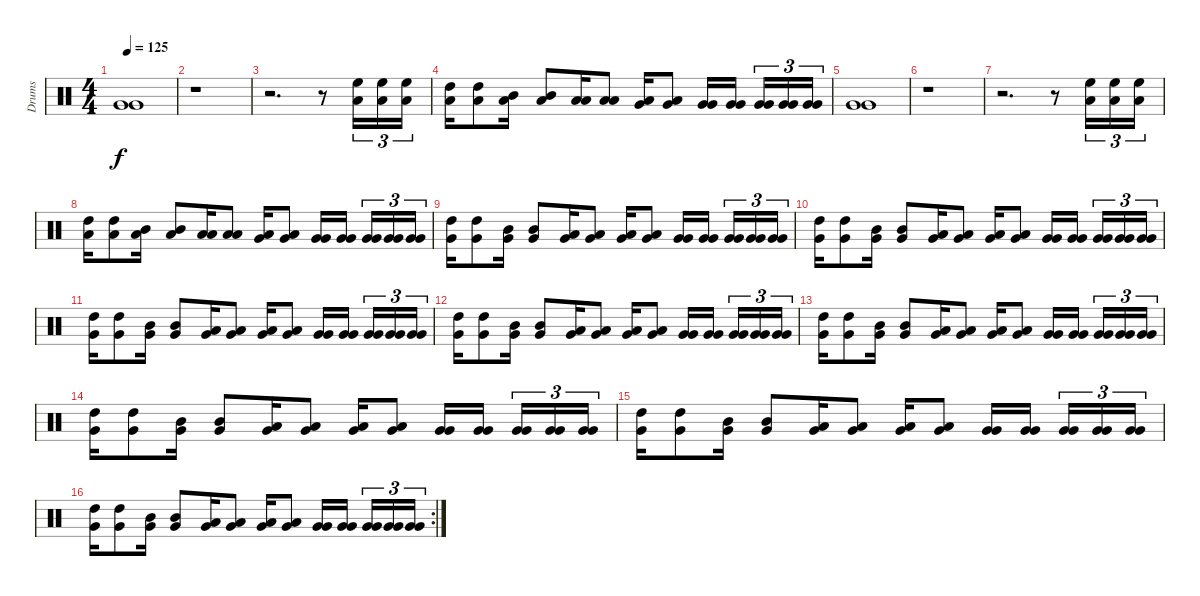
\track ("Drums" "Drums") {instrument percussion}
\staff {score}
\articulation defaults
\ts (4 4)
\tempo 125
\clef neutral
\ks c
("Very Low Tom (hit)" "Very Low Tom (hit)").1{dy f} |
r.1 |
r.2{d} r.8 ("High Floor Tom (hit)" "Low Tom (hit)").16{tu (3 2)} ("High Floor Tom (hit)" "Low Tom (hit)").16{tu (3 2)} ("High Floor Tom (hit)" "Low Tom (hit)").16{tu (3 2)} |
("High Tom (hit)" "Low Tom (hit)").16 ("High Tom (hit)" "Low Tom (hit)").8 ("Mid Tom (hit)" "Low Tom (hit)").16 ("Mid Tom (hit)" "Low Tom (hit)").8 ("Low Tom (hit)" "Low Tom (hit)").16 ("Low Tom (hit)" "Low Tom (hit)").8 ("Low Tom (hit)" "Very Low Tom (hit)").16 ("Low Tom (hit)" "Very Low Tom (hit)").8 ("Very Low Tom (hit)" "Very Low Tom (hit)").16 ("Very Low Tom (hit)" "Very Low Tom (hit)").16 ("Very Low Tom (hit)" "Very Low Tom (hit)").16{tu (3 2)} ("Very Low Tom (hit)" "Very Low Tom (hit)").16{tu (3 2)} ("Very Low Tom (hit)" "Very Low Tom (hit)").16{tu (3 2)} |
("Very Low Tom (hit)" "Very Low Tom (hit)").1 |
r.1 |
r.2{d} r.8 ("High Floor Tom (hit)" "Low Tom (hit)").16{tu (3 2)} ("High Floor Tom (hit)" "Low Tom (hit)").16{tu (3 2)} ("High Floor Tom (hit)" "Low Tom (hit)").16{tu (3 2)} |
("High Tom (hit)" "Low Tom (hit)").16 ("High Tom (hit)" "Low Tom (hit)").8 ("Mid Tom (hit)" "Low Tom (hit)").16 ("Mid Tom (hit)" "Low Tom (hit)").8 ("Low Tom (hit)" "Low Tom (hit)").16 ("Low Tom (hit)" "Low Tom (hit)").8 ("Low Tom (hit)" "Very Low Tom (hit)").16 ("Low Tom (hit)" "Very Low Tom (hit)").8 ("Very Low Tom (hit)" "Very Low Tom (hit)").16 ("Very Low Tom (hit)" "Very Low Tom (hit)").16 ("Very Low Tom (hit)" "Very Low Tom (hit)").16{tu (3 2)} ("Very Low Tom (hit)" "Very Low Tom (hit)").16{tu (3 2)} ("Very Low Tom (hit)" "Very Low Tom (hit)").16{tu (3 2)} |
("High Tom (hit)" "Very Low Tom (hit)").16 ("High Tom (hit)" "Very Low Tom (hit)").8 ("Mid Tom (hit)" "Very Low Tom (hit)").16 ("Mid Tom (hit)" "Very Low Tom (hit)").8 ("Low Tom (hit)" "Very Low Tom (hit)").16 ("Low Tom (hit)" "Very Low Tom (hit)").8 ("Low Tom (hit)" "Very Low Tom (hit)").16 ("Low Tom (hit)" "Very Low Tom (hit)").8 ("Very Low Tom (hit)" "Very Low Tom (hit)").16 ("Very Low Tom (hit)" "Very Low Tom (hit)").16 ("Very Low Tom (hit)" "Very Low Tom (hit)").16{tu (3 2)} ("Very Low Tom (hit)" "Very Low Tom (hit)").16{tu (3 2)} ("Very Low Tom (hit)" "Very Low Tom (hit)").16{tu (3 2)} |
("High Tom (hit)" "Very Low Tom (hit)").16 ("High Tom (hit)" "Very Low Tom (hit)").8 ("Mid Tom (hit)" "Very Low Tom (hit)").16 ("Mid Tom (hit)" "Very Low Tom (hit)").8 ("Low Tom (hit)" "Very Low Tom (hit)").16 ("Low Tom (hit)" "Very Low Tom (hit)").8 ("Low Tom (hit)" "Very Low Tom (hit)").16 ("Low Tom (hit)" "Very Low Tom (hit)").8 ("Very Low Tom (hit)" "Very Low Tom (hit)").16 ("Very Low Tom (hit)" "Very Low Tom (hit)").16 ("Very Low Tom (hit)" "Very Low Tom (hit)").16{tu (3 2)} ("Very Low Tom (hit)" "Very Low Tom (hit)").16{tu (3 2)} ("Very Low Tom (hit)" "Very Low Tom (hit)").16{tu (3 2)} |
("High Tom (hit)" "Very Low Tom (hit)").16 ("High Tom (hit)" "Very Low Tom (hit)").8 ("Mid Tom (hit)" "Very Low Tom (hit)").16 ("Mid Tom (hit)" "Very Low Tom (hit)").8 ("Low Tom (hit)" "Very Low Tom (hit)").16 ("Low Tom (hit)" "Very Low Tom (hit)").8 ("Low Tom (hit)" "Very Low Tom (hit)").16 ("Low Tom (hit)" "Very Low Tom (hit)").8 ("Very Low Tom (hit)" "Very Low Tom (hit)").16 ("Very Low Tom (hit)" "Very Low Tom (hit)").16 ("Very Low Tom (hit)" "Very Low Tom (hit)").16{tu (3 2)} ("Very Low Tom (hit)" "Very Low Tom (hit)").16{tu (3 2)} ("Very Low Tom (hit)" "Very Low Tom (hit)").16{tu (3 2)} |
("High Tom (hit)" "Very Low Tom (hit)").16 ("High Tom (hit)" "Very Low Tom (hit)").8 ("Mid Tom (hit)" "Very Low Tom (hit)").16 ("Mid Tom (hit)" "Very Low Tom (hit)").8 ("Low Tom (hit)" "Very Low Tom (hit)").16 ("Low Tom (hit)" "Very Low Tom (hit)").8 ("Low Tom (hit)" "Very Low Tom (hit)").16 ("Low Tom (hit)" "Very Low Tom (hit)").8 ("Very Low Tom (hit)" "Very Low Tom (hit)").16 ("Very Low Tom (hit)" "Very Low Tom (hit)").16 ("Very Low Tom (hit)" "Very Low Tom (hit)").16{tu (3 2)} ("Very Low Tom (hit)" "Very Low Tom (hit)").16{tu (3 2)} ("Very Low Tom (hit)" "Very Low Tom (hit)").16{tu (3 2)} |
("High Tom (hit)" "Very Low Tom (hit)").16 ("High Tom (hit)" "Very Low Tom (hit)").8 ("Mid Tom (hit)" "Very Low Tom (hit)").16 ("Mid Tom (hit)" "Very Low Tom (hit)").8 ("Low Tom (hit)" "Very Low Tom (hit)").16 ("Low Tom (hit)" "Very Low Tom (hit)").8 ("Low Tom (hit)" "Very Low Tom (hit)").16 ("Low Tom (hit)" "Very Low Tom (hit)").8 ("Very Low Tom (hit)" "Very Low Tom (hit)").16 ("Very Low Tom (hit)" "Very Low Tom (hit)").16 ("Very Low Tom (hit)" "Very Low Tom (hit)").16{tu (3 2)} ("Very Low Tom (hit)" "Very Low Tom (hit)").16{tu (3 2)} ("Very Low Tom (hit)" "Very Low Tom (hit)").16{tu (3 2)} |
("High Tom (hit)" "Very Low Tom (hit)").16 ("High Tom (hit)" "Very Low Tom (hit)").8 ("Mid Tom (hit)" "Very Low Tom (hit)").16 ("Mid Tom (hit)" "Very Low Tom (hit)").8 ("Low Tom (hit)" "Very Low Tom (hit)").16 ("Low Tom (hit)" "Very Low Tom (hit)").8 ("Low Tom (hit)" "Very Low Tom (hit)").16 ("Low Tom (hit)" "Very Low Tom (hit)").8 ("Very Low Tom (hit)" "Very Low Tom (hit)").16 ("Very Low Tom (hit)" "Very Low Tom (hit)").16 ("Very Low Tom (hit)" "Very Low Tom (hit)").16{tu (3 2)} ("Very Low Tom (hit)" "Very Low Tom (hit)").16{tu (3 2)} ("Very Low Tom (hit)" "Very Low Tom (hit)").16{tu (3 2)} |
("High Tom (hit)" "Very Low Tom (hit)").16 ("High Tom (hit)" "Very Low Tom (hit)").8 ("Mid Tom (hit)" "Very Low Tom (hit)").16 ("Mid Tom (hit)" "Very Low Tom (hit)").8 ("Low Tom (hit)" "Very Low Tom (hit)").16 ("Low Tom (hit)" "Very Low Tom (hit)").8 ("Low Tom (hit)" "Very Low Tom (hit)").16 ("Low Tom (hit)" "Very Low Tom (hit)").8 ("Very Low Tom (hit)" "Very Low Tom (hit)").16 ("Very Low Tom (hit)" "Very Low Tom (hit)").16 ("Very Low Tom (hit)" "Very Low Tom (hit)").16{tu (3 2)} ("Very Low Tom (hit)" "Very Low Tom (hit)").16{tu (3 2)} ("Very Low Tom (hit)" "Very Low Tom (hit)").16{tu (3 2)} |
\rc 2
("High Tom (hit)" "Very Low Tom (hit)").16 ("High Tom (hit)" "Very Low Tom (hit)").8 ("Mid Tom (hit)" "Very Low Tom (hit)").16 ("Mid Tom (hit)" "Very Low Tom (hit)").8 ("Low Tom (hit)" "Very Low Tom (hit)").16 ("Low Tom (hit)" "Very Low Tom (hit)").8 ("Low Tom (hit)" "Very Low Tom (hit)").16 ("Low Tom (hit)" "Very Low Tom (hit)").8 ("Very Low Tom (hit)" "Very Low Tom (hit)").16 ("Very Low Tom (hit)" "Very Low Tom (hit)").16 ("Very Low Tom (hit)" "Very Low Tom (hit)").16{tu (3 2)} ("Very Low Tom (hit)" "Very Low Tom (hit)").16{tu (3 2)} ("Very Low Tom (hit)" "Very Low Tom (hit)").16{tu (3 2)}
